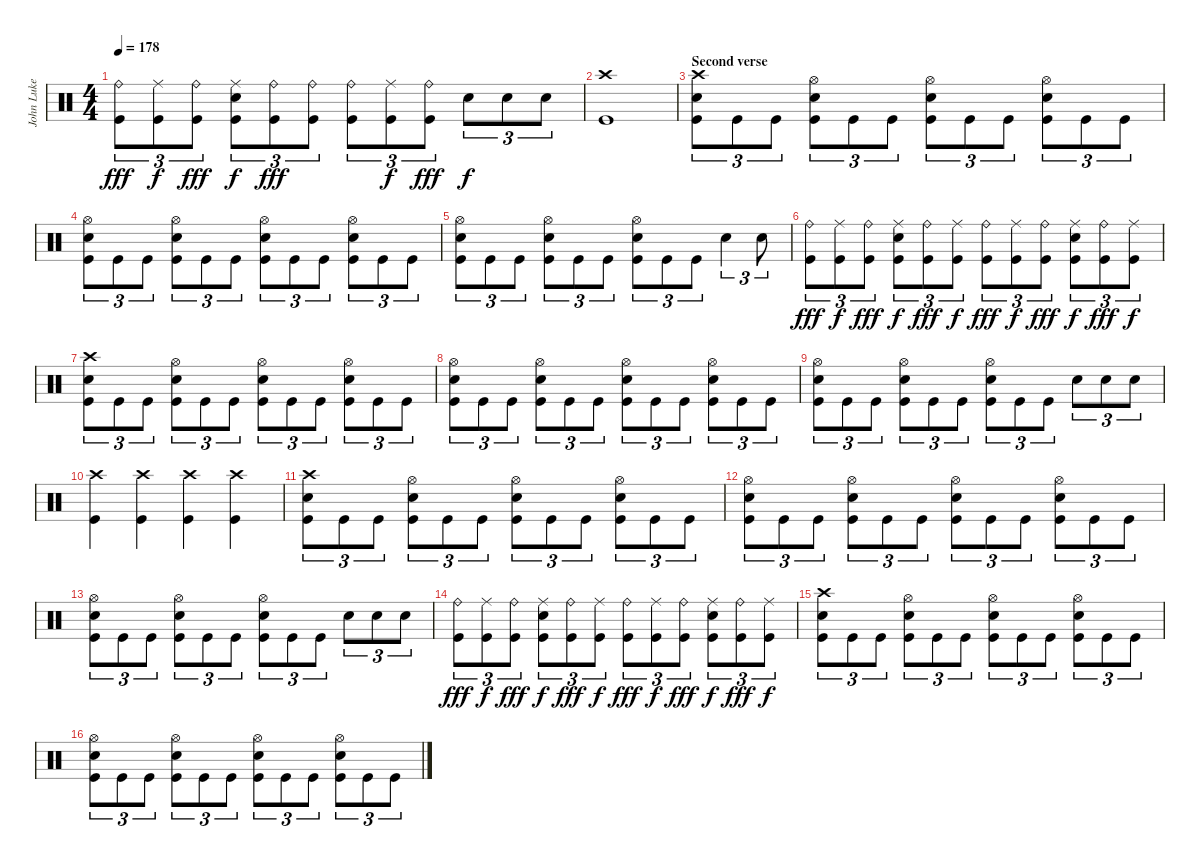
\track ("John Luke (Drums)" "John Luke ") {instrument percussion}
\staff {score}
\articulation defaults
\ts (4 4)
\tempo 178
\clef neutral
\ks c
("Ride (bell)" "Kick (hit)").8{tu (3 2) dy fff} ("Ride (middle)" "Kick (hit)").8{tu (3 2) dy f} ("Ride (bell)" "Kick (hit)").8{tu (3 2) dy fff} ("Ride (middle)" "Electric Snare (hit)" "Kick (hit)").8{tu (3 2) dy f} ("Ride (bell)" "Kick (hit)").8{tu (3 2) dy fff} ("Ride (bell)" "Kick (hit)").8{tu (3 2)} ("Ride (bell)" "Kick (hit)").8{tu (3 2)} ("Ride (middle)" "Kick (hit)").8{tu (3 2) dy f} ("Ride (bell)" "Kick (hit)").8{tu (3 2) dy fff} "Electric Snare (hit)".8{tu (3 2) dy f} "Electric Snare (hit)".8{tu (3 2)} "Electric Snare (hit)".8{tu (3 2)} |
("Crash high (hit)" "Kick (hit)").1 |
\section ("" "Second verse")
("Crash high (hit)" "Electric Snare (hit)" "Kick (hit)").8{tu (3 2)} "Kick (hit)".8{tu (3 2)} "Kick (hit)".8{tu (3 2)} ("Hi-Hat (open)" "Electric Snare (hit)" "Kick (hit)").8{tu (3 2)} "Kick (hit)".8{tu (3 2)} "Kick (hit)".8{tu (3 2)} ("Hi-Hat (open)" "Electric Snare (hit)" "Kick (hit)").8{tu (3 2)} "Kick (hit)".8{tu (3 2)} "Kick (hit)".8{tu (3 2)} ("Hi-Hat (open)" "Electric Snare (hit)" "Kick (hit)").8{tu (3 2)} "Kick (hit)".8{tu (3 2)} "Kick (hit)".8{tu (3 2)} |
("Hi-Hat (open)" "Electric Snare (hit)" "Kick (hit)").8{tu (3 2)} "Kick (hit)".8{tu (3 2)} "Kick (hit)".8{tu (3 2)} ("Hi-Hat (open)" "Electric Snare (hit)" "Kick (hit)").8{tu (3 2)} "Kick (hit)".8{tu (3 2)} "Kick (hit)".8{tu (3 2)} ("Hi-Hat (open)" "Electric Snare (hit)" "Kick (hit)").8{tu (3 2)} "Kick (hit)".8{tu (3 2)} "Kick (hit)".8{tu (3 2)} ("Hi-Hat (open)" "Electric Snare (hit)" "Kick (hit)").8{tu (3 2)} "Kick (hit)".8{tu (3 2)} "Kick (hit)".8{tu (3 2)} |
("Hi-Hat (open)" "Electric Snare (hit)" "Kick (hit)").8{tu (3 2)} "Kick (hit)".8{tu (3 2)} "Kick (hit)".8{tu (3 2)} ("Hi-Hat (open)" "Electric Snare (hit)" "Kick (hit)").8{tu (3 2)} "Kick (hit)".8{tu (3 2)} "Kick (hit)".8{tu (3 2)} ("Hi-Hat (open)" "Electric Snare (hit)" "Kick (hit)").8{tu (3 2)} "Kick (hit)".8{tu (3 2)} "Kick (hit)".8{tu (3 2)} "Electric Snare (hit)".4{tu (3 2)} "Electric Snare (hit)".8{tu (3 2)} |
("Ride (bell)" "Kick (hit)").8{tu (3 2) dy fff} ("Ride (middle)" "Kick (hit)").8{tu (3 2) dy f} ("Ride (bell)" "Kick (hit)").8{tu (3 2) dy fff} ("Ride (middle)" "Electric Snare (hit)" "Kick (hit)").8{tu (3 2) dy f} ("Ride (bell)" "Kick (hit)").8{tu (3 2) dy fff} ("Ride (middle)" "Kick (hit)").8{tu (3 2) dy f} ("Ride (bell)" "Kick (hit)").8{tu (3 2) dy fff} ("Ride (middle)" "Kick (hit)").8{tu (3 2) dy f} ("Ride (bell)" "Kick (hit)").8{tu (3 2) dy fff} ("Ride (middle)" "Electric Snare (hit)" "Kick (hit)").8{tu (3 2) dy f} ("Ride (bell)" "Kick (hit)").8{tu (3 2) dy fff} ("Ride (middle)" "Kick (hit)").8{tu (3 2) dy f} |
("Crash high (hit)" "Electric Snare (hit)" "Kick (hit)").8{tu (3 2)} "Kick (hit)".8{tu (3 2)} "Kick (hit)".8{tu (3 2)} ("Hi-Hat (open)" "Electric Snare (hit)" "Kick (hit)").8{tu (3 2)} "Kick (hit)".8{tu (3 2)} "Kick (hit)".8{tu (3 2)} ("Hi-Hat (open)" "Electric Snare (hit)" "Kick (hit)").8{tu (3 2)} "Kick (hit)".8{tu (3 2)} "Kick (hit)".8{tu (3 2)} ("Hi-Hat (open)" "Electric Snare (hit)" "Kick (hit)").8{tu (3 2)} "Kick (hit)".8{tu (3 2)} "Kick (hit)".8{tu (3 2)} |
("Hi-Hat (open)" "Electric Snare (hit)" "Kick (hit)").8{tu (3 2)} "Kick (hit)".8{tu (3 2)} "Kick (hit)".8{tu (3 2)} ("Hi-Hat (open)" "Electric Snare (hit)" "Kick (hit)").8{tu (3 2)} "Kick (hit)".8{tu (3 2)} "Kick (hit)".8{tu (3 2)} ("Hi-Hat (open)" "Electric Snare (hit)" "Kick (hit)").8{tu (3 2)} "Kick (hit)".8{tu (3 2)} "Kick (hit)".8{tu (3 2)} ("Hi-Hat (open)" "Electric Snare (hit)" "Kick (hit)").8{tu (3 2)} "Kick (hit)".8{tu (3 2)} "Kick (hit)".8{tu (3 2)} |
("Hi-Hat (open)" "Electric Snare (hit)" "Kick (hit)").8{tu (3 2)} "Kick (hit)".8{tu (3 2)} "Kick (hit)".8{tu (3 2)} ("Hi-Hat (open)" "Electric Snare (hit)" "Kick (hit)").8{tu (3 2)} "Kick (hit)".8{tu (3 2)} "Kick (hit)".8{tu (3 2)} ("Hi-Hat (open)" "Electric Snare (hit)" "Kick (hit)").8{tu (3 2)} "Kick (hit)".8{tu (3 2)} "Kick (hit)".8{tu (3 2)} "Electric Snare (hit)".8{tu (3 2)} "Electric Snare (hit)".8{tu (3 2)} "Electric Snare (hit)".8{tu (3 2)} |
("Crash high (hit)" "Kick (hit)").4 ("Crash high (hit)" "Kick (hit)").4 ("Crash high (hit)" "Kick (hit)").4 ("Crash high (hit)" "Kick (hit)").4 |
("Crash high (hit)" "Electric Snare (hit)" "Kick (hit)").8{tu (3 2)} "Kick (hit)".8{tu (3 2)} "Kick (hit)".8{tu (3 2)} ("Hi-Hat (open)" "Electric Snare (hit)" "Kick (hit)").8{tu (3 2)} "Kick (hit)".8{tu (3 2)} "Kick (hit)".8{tu (3 2)} ("Hi-Hat (open)" "Electric Snare (hit)" "Kick (hit)").8{tu (3 2)} "Kick (hit)".8{tu (3 2)} "Kick (hit)".8{tu (3 2)} ("Hi-Hat (open)" "Electric Snare (hit)" "Kick (hit)").8{tu (3 2)} "Kick (hit)".8{tu (3 2)} "Kick (hit)".8{tu (3 2)} |
("Hi-Hat (open)" "Electric Snare (hit)" "Kick (hit)").8{tu (3 2)} "Kick (hit)".8{tu (3 2)} "Kick (hit)".8{tu (3 2)} ("Hi-Hat (open)" "Electric Snare (hit)" "Kick (hit)").8{tu (3 2)} "Kick (hit)".8{tu (3 2)} "Kick (hit)".8{tu (3 2)} ("Hi-Hat (open)" "Electric Snare (hit)" "Kick (hit)").8{tu (3 2)} "Kick (hit)".8{tu (3 2)} "Kick (hit)".8{tu (3 2)} ("Hi-Hat (open)" "Electric Snare (hit)" "Kick (hit)").8{tu (3 2)} "Kick (hit)".8{tu (3 2)} "Kick (hit)".8{tu (3 2)} |
("Hi-Hat (open)" "Electric Snare (hit)" "Kick (hit)").8{tu (3 2)} "Kick (hit)".8{tu (3 2)} "Kick (hit)".8{tu (3 2)} ("Hi-Hat (open)" "Electric Snare (hit)" "Kick (hit)").8{tu (3 2)} "Kick (hit)".8{tu (3 2)} "Kick (hit)".8{tu (3 2)} ("Hi-Hat (open)" "Electric Snare (hit)" "Kick (hit)").8{tu (3 2)} "Kick (hit)".8{tu (3 2)} "Kick (hit)".8{tu (3 2)} "Electric Snare (hit)".8{tu (3 2)} "Electric Snare (hit)".8{tu (3 2)} "Electric Snare (hit)".8{tu (3 2)} |
("Ride (bell)" "Kick (hit)").8{tu (3 2) dy fff} ("Ride (middle)" "Kick (hit)").8{tu (3 2) dy f} ("Ride (bell)" "Kick (hit)").8{tu (3 2) dy fff} ("Ride (middle)" "Electric Snare (hit)" "Kick (hit)").8{tu (3 2) dy f} ("Ride (bell)" "Kick (hit)").8{tu (3 2) dy fff} ("Ride (middle)" "Kick (hit)").8{tu (3 2) dy f} ("Ride (bell)" "Kick (hit)").8{tu (3 2) dy fff} ("Ride (middle)" "Kick (hit)").8{tu (3 2) dy f} ("Ride (bell)" "Kick (hit)").8{tu (3 2) dy fff} ("Ride (middle)" "Electric Snare (hit)" "Kick (hit)").8{tu (3 2) dy f} ("Ride (bell)" "Kick (hit)").8{tu (3 2) dy fff} ("Ride (middle)" "Kick (hit)").8{tu (3 2) dy f} |
("Crash high (hit)" "Electric Snare (hit)" "Kick (hit)").8{tu (3 2)} "Kick (hit)".8{tu (3 2)} "Kick (hit)".8{tu (3 2)} ("Hi-Hat (open)" "Electric Snare (hit)" "Kick (hit)").8{tu (3 2)} "Kick (hit)".8{tu (3 2)} "Kick (hit)".8{tu (3 2)} ("Hi-Hat (open)" "Electric Snare (hit)" "Kick (hit)").8{tu (3 2)} "Kick (hit)".8{tu (3 2)} "Kick (hit)".8{tu (3 2)} ("Hi-Hat (open)" "Electric Snare (hit)" "Kick (hit)").8{tu (3 2)} "Kick (hit)".8{tu (3 2)} "Kick (hit)".8{tu (3 2)} |
("Hi-Hat (open)" "Electric Snare (hit)" "Kick (hit)").8{tu (3 2)} "Kick (hit)".8{tu (3 2)} "Kick (hit)".8{tu (3 2)} ("Hi-Hat (open)" "Electric Snare (hit)" "Kick (hit)").8{tu (3 2)} "Kick (hit)".8{tu (3 2)} "Kick (hit)".8{tu (3 2)} ("Hi-Hat (open)" "Electric Snare (hit)" "Kick (hit)").8{tu (3 2)} "Kick (hit)".8{tu (3 2)} "Kick (hit)".8{tu (3 2)} ("Hi-Hat (open)" "Electric Snare (hit)" "Kick (hit)").8{tu (3 2)} "Kick (hit)".8{tu (3 2)} "Kick (hit)".8{tu (3 2)}
